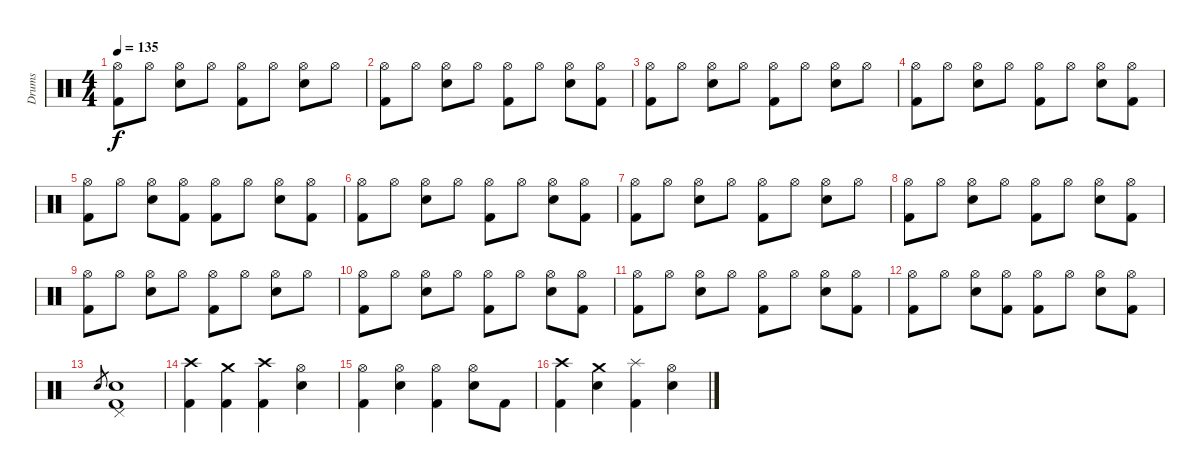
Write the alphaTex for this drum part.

\track ("Drums" "Drums") {instrument percussion}
\staff {score}
\articulation defaults
\ts (4 4)
\tempo 135
\clef neutral
\ks c
("Hi-Hat (open)" "Kick (hit) 2").8{dy f} "Hi-Hat (open)".8 ("Hi-Hat (open)" "Electric Snare (hit)").8 "Hi-Hat (open)".8 ("Hi-Hat (open)" "Kick (hit) 2").8 "Hi-Hat (open)".8 ("Hi-Hat (open)" "Electric Snare (hit)").8 "Hi-Hat (open)".8 |
("Hi-Hat (open)" "Kick (hit) 2").8 "Hi-Hat (open)".8 ("Hi-Hat (open)" "Electric Snare (hit)").8 "Hi-Hat (open)".8 ("Hi-Hat (open)" "Kick (hit) 2").8 "Hi-Hat (open)".8 ("Hi-Hat (open)" "Electric Snare (hit)").8 ("Hi-Hat (open)" "Kick (hit) 2").8 |
("Hi-Hat (open)" "Kick (hit) 2").8 "Hi-Hat (open)".8 ("Hi-Hat (open)" "Electric Snare (hit)").8 "Hi-Hat (open)".8 ("Hi-Hat (open)" "Kick (hit) 2").8 "Hi-Hat (open)".8 ("Hi-Hat (open)" "Electric Snare (hit)").8 "Hi-Hat (open)".8 |
("Hi-Hat (open)" "Kick (hit) 2").8 "Hi-Hat (open)".8 ("Hi-Hat (open)" "Electric Snare (hit)").8 "Hi-Hat (open)".8 ("Hi-Hat (open)" "Kick (hit) 2").8 "Hi-Hat (open)".8 ("Hi-Hat (open)" "Electric Snare (hit)").8 ("Hi-Hat (open)" "Kick (hit) 2").8 |
("Hi-Hat (open)" "Kick (hit) 2").8 "Hi-Hat (open)".8 ("Hi-Hat (open)" "Electric Snare (hit)").8 ("Hi-Hat (open)" "Kick (hit) 2").8 ("Hi-Hat (open)" "Kick (hit) 2").8 "Hi-Hat (open)".8 ("Hi-Hat (open)" "Electric Snare (hit)").8 ("Hi-Hat (open)" "Kick (hit) 2").8 |
("Hi-Hat (open)" "Kick (hit) 2").8 "Hi-Hat (open)".8 ("Hi-Hat (open)" "Electric Snare (hit)").8 "Hi-Hat (open)".8 ("Hi-Hat (open)" "Kick (hit) 2").8 "Hi-Hat (open)".8 ("Hi-Hat (open)" "Electric Snare (hit)").8 ("Hi-Hat (open)" "Kick (hit) 2").8 |
("Hi-Hat (open)" "Kick (hit) 2").8 "Hi-Hat (open)".8 ("Hi-Hat (open)" "Electric Snare (hit)").8 "Hi-Hat (open)".8 ("Hi-Hat (open)" "Kick (hit) 2").8 "Hi-Hat (open)".8 ("Hi-Hat (open)" "Electric Snare (hit)").8 "Hi-Hat (open)".8 |
("Hi-Hat (open)" "Kick (hit) 2").8 "Hi-Hat (open)".8 ("Hi-Hat (open)" "Electric Snare (hit)").8 "Hi-Hat (open)".8 ("Hi-Hat (open)" "Kick (hit) 2").8 "Hi-Hat (open)".8 ("Hi-Hat (open)" "Electric Snare (hit)").8 ("Hi-Hat (open)" "Kick (hit) 2").8 |
("Hi-Hat (open)" "Kick (hit) 2").8 "Hi-Hat (open)".8 ("Hi-Hat (open)" "Electric Snare (hit)").8 "Hi-Hat (open)".8 ("Hi-Hat (open)" "Kick (hit) 2").8 "Hi-Hat (open)".8 ("Hi-Hat (open)" "Electric Snare (hit)").8 "Hi-Hat (open)".8 |
("Hi-Hat (open)" "Kick (hit) 2").8 "Hi-Hat (open)".8 ("Hi-Hat (open)" "Electric Snare (hit)").8 "Hi-Hat (open)".8 ("Hi-Hat (open)" "Kick (hit) 2").8 "Hi-Hat (open)".8 ("Hi-Hat (open)" "Electric Snare (hit)").8 ("Hi-Hat (open)" "Kick (hit) 2").8 |
("Hi-Hat (open)" "Kick (hit) 2").8 "Hi-Hat (open)".8 ("Hi-Hat (open)" "Electric Snare (hit)").8 "Hi-Hat (open)".8 ("Hi-Hat (open)" "Kick (hit) 2").8 "Hi-Hat (open)".8 ("Hi-Hat (open)" "Electric Snare (hit)").8 ("Hi-Hat (open)" "Kick (hit) 2").8 |
("Hi-Hat (open)" "Kick (hit) 2").8 "Hi-Hat (open)".8 ("Hi-Hat (open)" "Electric Snare (hit)").8 ("Hi-Hat (open)" "Kick (hit) 2").8 ("Hi-Hat (open)" "Kick (hit) 2").8 "Hi-Hat (open)".8 ("Hi-Hat (open)" "Electric Snare (hit)").8 ("Hi-Hat (open)" "Kick (hit) 2").8 |
"Electric Snare (hit)".8{gr} ("Pedal Hi-Hat (hit)" "Electric Snare (hit)" "Kick (hit) 2").1 |
("Crash high (hit)" "Kick (hit) 2").4 ("Crash medium (hit)" "Kick (hit) 2").4 ("Crash high (hit)" "Kick (hit) 2").4 ("Hi-Hat (open)" "Electric Snare (hit)").4 |
("Hi-Hat (open)" "Kick (hit) 2").4 ("Hi-Hat (open)" "Electric Snare (hit)").4 ("Hi-Hat (open)" "Kick (hit) 2").4 ("Hi-Hat (open)" "Electric Snare (hit)").8 "Kick (hit) 2".8 |
("Crash high (hit)" "Kick (hit) 2").4 ("Crash medium (hit)" "Electric Snare (hit)").4 ("Splash (hit)" "Kick (hit) 2").4 ("Hi-Hat (open)" "Electric Snare (hit)").4
